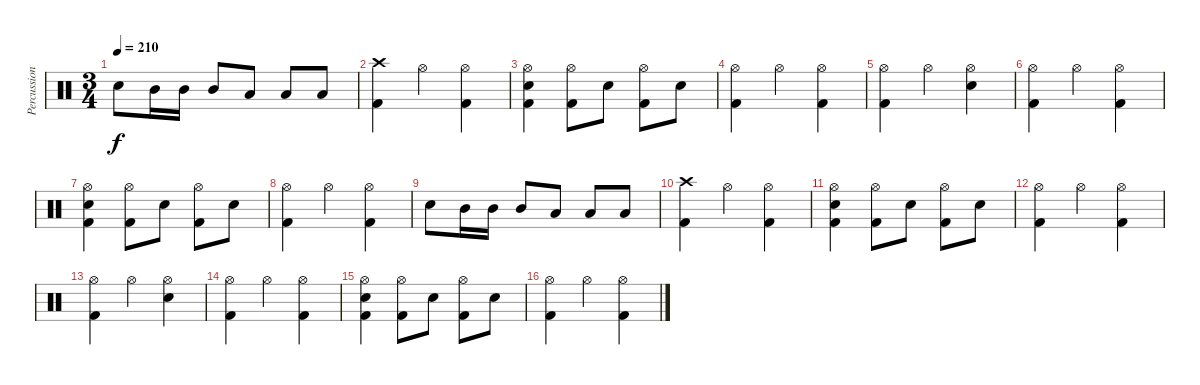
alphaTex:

\track ("Percussion" "Percussion") {instrument percussion}
\staff {score}
\articulation defaults
\ts (3 4)
\tempo 210
\clef neutral
\ks c "Electric Snare (hit)".8{dy f} "Mid Tom (hit)".16 "Mid Tom (hit)".16 "Mid Tom (hit)".8 "Low Tom (hit)".8 "Low Tom (hit)".8 "Low Tom (hit)".8
|
("Crash high (hit)" "Kick (hit) 2").4 "Hi-Hat (open)".4 ("Hi-Hat (open)" "Kick (hit) 2").4 |
("Hi-Hat (open)" "Electric Snare (hit)" "Kick (hit) 2").4 ("Hi-Hat (open)" "Kick (hit) 2").8 "Electric Snare (hit)".8 ("Hi-Hat (open)" "Kick (hit) 2").8 "Electric Snare (hit)".8 |
("Hi-Hat (open)" "Kick (hit) 2").4 "Hi-Hat (open)".4 ("Hi-Hat (open)" "Kick (hit) 2").4 |
("Hi-Hat (open)" "Kick (hit) 2").4 "Hi-Hat (open)".4 ("Hi-Hat (open)" "Electric Snare (hit)").4 |
("Hi-Hat (open)" "Kick (hit) 2").4 "Hi-Hat (open)".4 ("Hi-Hat (open)" "Kick (hit) 2").4 |
("Hi-Hat (open)" "Electric Snare (hit)" "Kick (hit) 2").4 ("Hi-Hat (open)" "Kick (hit) 2").8 "Electric Snare (hit)".8 ("Hi-Hat (open)" "Kick (hit) 2").8 "Electric Snare (hit)".8 |
("Hi-Hat (open)" "Kick (hit) 2").4 "Hi-Hat (open)".4 ("Hi-Hat (open)" "Kick (hit) 2").4 |
"Electric Snare (hit)".8 "Mid Tom (hit)".16 "Mid Tom (hit)".16 "Mid Tom (hit)".8 "Low Tom (hit)".8 "Low Tom (hit)".8 "Low Tom (hit)".8 |
("Crash high (hit)" "Kick (hit) 2").4 "Hi-Hat (open)".4 ("Hi-Hat (open)" "Kick (hit) 2").4 |
("Hi-Hat (open)" "Electric Snare (hit)" "Kick (hit) 2").4 ("Hi-Hat (open)" "Kick (hit) 2").8 "Electric Snare (hit)".8 ("Hi-Hat (open)" "Kick (hit) 2").8 "Electric Snare (hit)".8 |
("Hi-Hat (open)" "Kick (hit) 2").4 "Hi-Hat (open)".4 ("Hi-Hat (open)" "Kick (hit) 2").4 |
("Hi-Hat (open)" "Kick (hit) 2").4 "Hi-Hat (open)".4 ("Hi-Hat (open)" "Electric Snare (hit)").4 |
("Hi-Hat (open)" "Kick (hit) 2").4 "Hi-Hat (open)".4 ("Hi-Hat (open)" "Kick (hit) 2").4 |
("Hi-Hat (open)" "Electric Snare (hit)" "Kick (hit) 2").4 ("Hi-Hat (open)" "Kick (hit) 2").8 "Electric Snare (hit)".8 ("Hi-Hat (open)" "Kick (hit) 2").8 "Electric Snare (hit)".8 |
("Hi-Hat (open)" "Kick (hit) 2").4 "Hi-Hat (open)".4 ("Hi-Hat (open)" "Kick (hit) 2").4
